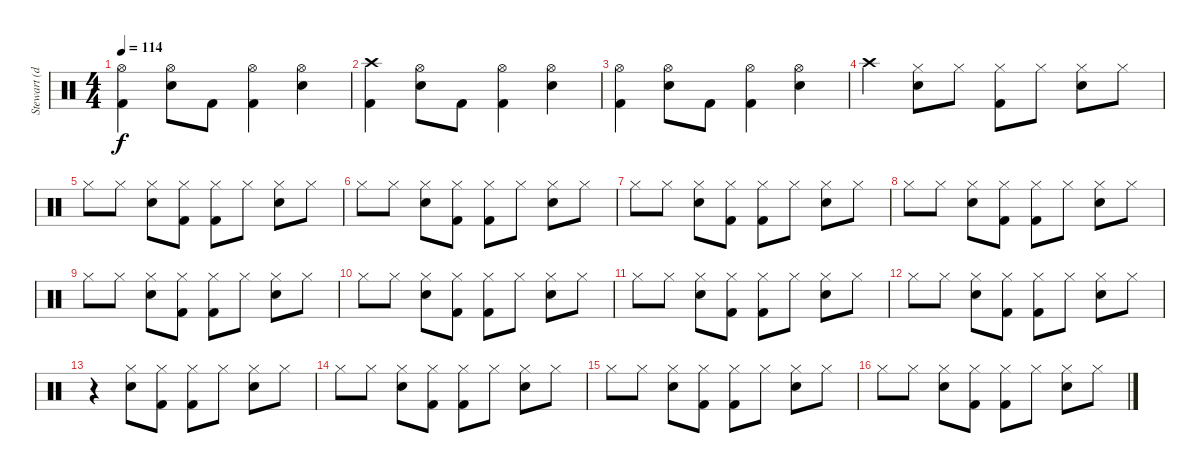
\track ("Stewart (drums)" "Stewart (d") {instrument percussion}
\staff {score}
\articulation defaults
\ts (4 4)
\tempo 114
\clef neutral
\ks c
("Hi-Hat (open)" "Kick (hit) 2").4{dy f} ("Hi-Hat (open)" "Snare (hit) 2").8 "Kick (hit) 2".8 ("Hi-Hat (open)" "Kick (hit) 2").4 ("Hi-Hat (open)" "Snare (hit) 2").4 |
("Crash high (hit)" "Kick (hit) 2").4 ("Hi-Hat (open)" "Snare (hit) 2").8 "Kick (hit) 2".8 ("Hi-Hat (open)" "Kick (hit) 2").4 ("Hi-Hat (open)" "Snare (hit) 2").4 |
("Hi-Hat (open)" "Kick (hit) 2").4 ("Hi-Hat (open)" "Snare (hit) 2").8 "Kick (hit) 2".8 ("Hi-Hat (open)" "Kick (hit) 2").4 ("Hi-Hat (open)" "Snare (hit) 2").4 |
"Crash high (hit)".4 ("Hi-Hat (closed)" "Snare (hit) 2").8 "Hi-Hat (closed)".8 ("Hi-Hat (closed)" "Kick (hit) 2").8 "Hi-Hat (closed)".8 ("Hi-Hat (closed)" "Snare (hit) 2").8 "Hi-Hat (closed)".8 |
"Hi-Hat (closed)".8 "Hi-Hat (closed)".8 ("Hi-Hat (closed)" "Snare (hit) 2").8 ("Hi-Hat (closed)" "Kick (hit) 2").8 ("Hi-Hat (closed)" "Kick (hit) 2").8 "Hi-Hat (closed)".8 ("Hi-Hat (closed)" "Snare (hit) 2").8 "Hi-Hat (closed)".8 |
"Hi-Hat (closed)".8 "Hi-Hat (closed)".8 ("Hi-Hat (closed)" "Snare (hit) 2").8 ("Hi-Hat (closed)" "Kick (hit) 2").8 ("Hi-Hat (closed)" "Kick (hit) 2").8 "Hi-Hat (closed)".8 ("Hi-Hat (closed)" "Snare (hit) 2").8 "Hi-Hat (closed)".8 |
"Hi-Hat (closed)".8 "Hi-Hat (closed)".8 ("Hi-Hat (closed)" "Snare (hit) 2").8 ("Hi-Hat (closed)" "Kick (hit) 2").8 ("Hi-Hat (closed)" "Kick (hit) 2").8 "Hi-Hat (closed)".8 ("Hi-Hat (closed)" "Snare (hit) 2").8 "Hi-Hat (closed)".8 |
"Hi-Hat (closed)".8 "Hi-Hat (closed)".8 ("Hi-Hat (closed)" "Snare (hit) 2").8 ("Hi-Hat (closed)" "Kick (hit) 2").8 ("Hi-Hat (closed)" "Kick (hit) 2").8 "Hi-Hat (closed)".8 ("Hi-Hat (closed)" "Snare (hit) 2").8 "Hi-Hat (closed)".8 |
"Hi-Hat (closed)".8 "Hi-Hat (closed)".8 ("Hi-Hat (closed)" "Snare (hit) 2").8 ("Hi-Hat (closed)" "Kick (hit) 2").8 ("Hi-Hat (closed)" "Kick (hit) 2").8 "Hi-Hat (closed)".8 ("Hi-Hat (closed)" "Snare (hit) 2").8 "Hi-Hat (closed)".8 |
"Hi-Hat (closed)".8 "Hi-Hat (closed)".8 ("Hi-Hat (closed)" "Snare (hit) 2").8 ("Hi-Hat (closed)" "Kick (hit) 2").8 ("Hi-Hat (closed)" "Kick (hit) 2").8 "Hi-Hat (closed)".8 ("Hi-Hat (closed)" "Snare (hit) 2").8 "Hi-Hat (closed)".8 |
"Hi-Hat (closed)".8 "Hi-Hat (closed)".8 ("Hi-Hat (closed)" "Snare (hit) 2").8 ("Hi-Hat (closed)" "Kick (hit) 2").8 ("Hi-Hat (closed)" "Kick (hit) 2").8 "Hi-Hat (closed)".8 ("Hi-Hat (closed)" "Snare (hit) 2").8 "Hi-Hat (closed)".8 |
"Hi-Hat (closed)".8 "Hi-Hat (closed)".8 ("Hi-Hat (closed)" "Snare (hit) 2").8 ("Hi-Hat (closed)" "Kick (hit) 2").8 ("Hi-Hat (closed)" "Kick (hit) 2").8 "Hi-Hat (closed)".8 ("Hi-Hat (closed)" "Snare (hit) 2").8 "Hi-Hat (closed)".8 |
r.4 ("Hi-Hat (closed)" "Snare (hit) 2").8 ("Hi-Hat (closed)" "Kick (hit) 2").8 ("Hi-Hat (closed)" "Kick (hit) 2").8 "Hi-Hat (closed)".8 ("Hi-Hat (closed)" "Snare (hit) 2").8 "Hi-Hat (closed)".8 |
"Hi-Hat (closed)".8 "Hi-Hat (closed)".8 ("Hi-Hat (closed)" "Snare (hit) 2").8 ("Hi-Hat (closed)" "Kick (hit) 2").8 ("Hi-Hat (closed)" "Kick (hit) 2").8 "Hi-Hat (closed)".8 ("Hi-Hat (closed)" "Snare (hit) 2").8 "Hi-Hat (closed)".8 |
"Hi-Hat (closed)".8 "Hi-Hat (closed)".8 ("Hi-Hat (closed)" "Snare (hit) 2").8 ("Hi-Hat (closed)" "Kick (hit) 2").8 ("Hi-Hat (closed)" "Kick (hit) 2").8 "Hi-Hat (closed)".8 ("Hi-Hat (closed)" "Snare (hit) 2").8 "Hi-Hat (closed)".8 |
"Hi-Hat (closed)".8 "Hi-Hat (closed)".8 ("Hi-Hat (closed)" "Snare (hit) 2").8 ("Hi-Hat (closed)" "Kick (hit) 2").8 ("Hi-Hat (closed)" "Kick (hit) 2").8 "Hi-Hat (closed)".8 ("Hi-Hat (closed)" "Snare (hit) 2").8 "Hi-Hat (closed)".8
